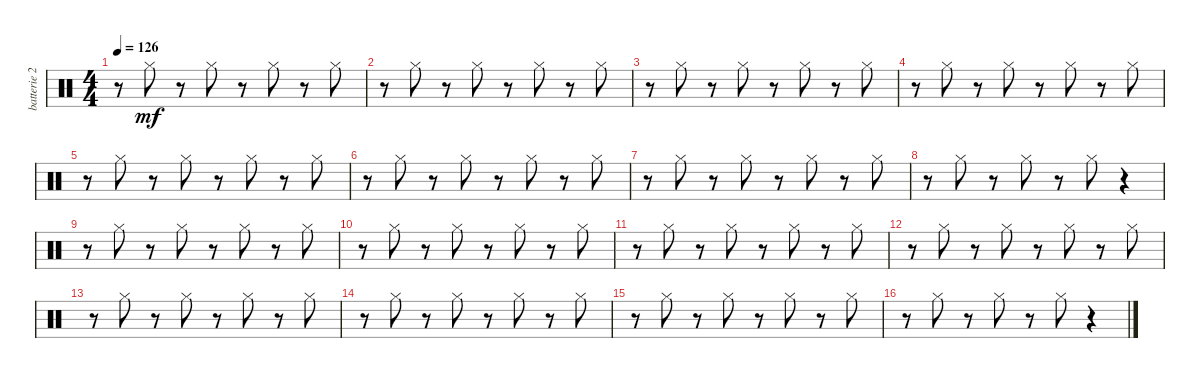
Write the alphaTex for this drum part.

\track ("batterie 2" "batterie 2") {instrument percussion}
\staff {score}
\articulation defaults
\ts (4 4)
\tempo 126
\clef neutral
\ks c
r.8{dy mf} "Hi-Hat (closed)".8 r.8 "Hi-Hat (closed)".8 r.8 "Hi-Hat (closed)".8 r.8 "Hi-Hat (closed)".8 |
r.8 "Hi-Hat (closed)".8 r.8 "Hi-Hat (closed)".8 r.8 "Hi-Hat (closed)".8 r.8 "Hi-Hat (closed)".8 |
r.8 "Hi-Hat (closed)".8 r.8 "Hi-Hat (closed)".8 r.8 "Hi-Hat (closed)".8 r.8 "Hi-Hat (closed)".8 |
r.8 "Hi-Hat (closed)".8 r.8 "Hi-Hat (closed)".8 r.8 "Hi-Hat (closed)".8 r.8 "Hi-Hat (closed)".8 |
r.8 "Hi-Hat (closed)".8 r.8 "Hi-Hat (closed)".8 r.8 "Hi-Hat (closed)".8 r.8 "Hi-Hat (closed)".8 |
r.8 "Hi-Hat (closed)".8 r.8 "Hi-Hat (closed)".8 r.8 "Hi-Hat (closed)".8 r.8 "Hi-Hat (closed)".8 |
r.8 "Hi-Hat (closed)".8 r.8 "Hi-Hat (closed)".8 r.8 "Hi-Hat (closed)".8 r.8 "Hi-Hat (closed)".8 |
r.8 "Hi-Hat (closed)".8 r.8 "Hi-Hat (closed)".8 r.8 "Hi-Hat (closed)".8 r.4 |
r.8 "Hi-Hat (closed)".8 r.8 "Hi-Hat (closed)".8 r.8 "Hi-Hat (closed)".8 r.8 "Hi-Hat (closed)".8 |
r.8 "Hi-Hat (closed)".8 r.8 "Hi-Hat (closed)".8 r.8 "Hi-Hat (closed)".8 r.8 "Hi-Hat (closed)".8 |
r.8 "Hi-Hat (closed)".8 r.8 "Hi-Hat (closed)".8 r.8 "Hi-Hat (closed)".8 r.8 "Hi-Hat (closed)".8 |
r.8 "Hi-Hat (closed)".8 r.8 "Hi-Hat (closed)".8 r.8 "Hi-Hat (closed)".8 r.8 "Hi-Hat (closed)".8 |
r.8 "Hi-Hat (closed)".8 r.8 "Hi-Hat (closed)".8 r.8 "Hi-Hat (closed)".8 r.8 "Hi-Hat (closed)".8 |
r.8 "Hi-Hat (closed)".8 r.8 "Hi-Hat (closed)".8 r.8 "Hi-Hat (closed)".8 r.8 "Hi-Hat (closed)".8 |
r.8 "Hi-Hat (closed)".8 r.8 "Hi-Hat (closed)".8 r.8 "Hi-Hat (closed)".8 r.8 "Hi-Hat (closed)".8 |
r.8 "Hi-Hat (closed)".8 r.8 "Hi-Hat (closed)".8 r.8 "Hi-Hat (closed)".8 r.4
